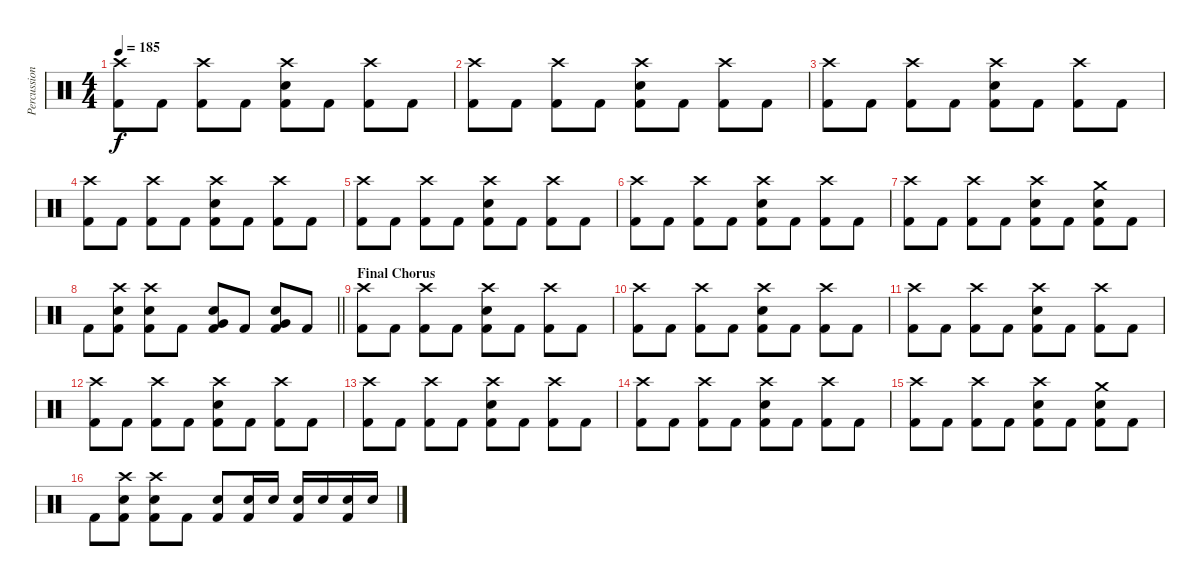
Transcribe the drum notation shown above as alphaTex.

\track ("Percussion" "Percussion") {instrument percussion}
\staff {score}
\articulation defaults
\ts (4 4)
\tempo 185
\clef neutral
\ks c
("Crash high (hit)" "Kick (hit) 2").8{dy f} "Kick (hit) 2".8 ("Crash high (hit)" "Kick (hit) 2").8 "Kick (hit) 2".8 ("Crash high (hit)" "Snare (hit) 2" "Kick (hit) 2").8 "Kick (hit) 2".8 ("Crash high (hit)" "Kick (hit) 2").8 "Kick (hit) 2".8 |
("Crash high (hit)" "Kick (hit) 2").8 "Kick (hit) 2".8 ("Crash high (hit)" "Kick (hit) 2").8 "Kick (hit) 2".8 ("Crash high (hit)" "Snare (hit) 2" "Kick (hit) 2").8 "Kick (hit) 2".8 ("Crash high (hit)" "Kick (hit) 2").8 "Kick (hit) 2".8 |
("Crash high (hit)" "Kick (hit) 2").8 "Kick (hit) 2".8 ("Crash high (hit)" "Kick (hit) 2").8 "Kick (hit) 2".8 ("Crash high (hit)" "Snare (hit) 2" "Kick (hit) 2").8 "Kick (hit) 2".8 ("Crash high (hit)" "Kick (hit) 2").8 "Kick (hit) 2".8 |
("Crash high (hit)" "Kick (hit) 2").8 "Kick (hit) 2".8 ("Crash high (hit)" "Kick (hit) 2").8 "Kick (hit) 2".8 ("Crash high (hit)" "Snare (hit) 2" "Kick (hit) 2").8 "Kick (hit) 2".8 ("Crash high (hit)" "Kick (hit) 2").8 "Kick (hit) 2".8 |
("Crash high (hit)" "Kick (hit) 2").8 "Kick (hit) 2".8 ("Crash high (hit)" "Kick (hit) 2").8 "Kick (hit) 2".8 ("Crash high (hit)" "Snare (hit) 2" "Kick (hit) 2").8 "Kick (hit) 2".8 ("Crash high (hit)" "Kick (hit) 2").8 "Kick (hit) 2".8 |
("Crash high (hit)" "Kick (hit) 2").8 "Kick (hit) 2".8 ("Crash high (hit)" "Kick (hit) 2").8 "Kick (hit) 2".8 ("Crash high (hit)" "Snare (hit) 2" "Kick (hit) 2").8 "Kick (hit) 2".8 ("Crash high (hit)" "Kick (hit) 2").8 "Kick (hit) 2".8 |
("Crash high (hit)" "Kick (hit) 2").8 "Kick (hit) 2".8 ("Crash high (hit)" "Kick (hit) 2").8 "Kick (hit) 2".8 ("Crash high (hit)" "Snare (hit) 2" "Kick (hit) 2").8 "Kick (hit) 2".8 ("Crash medium (hit)" "Snare (hit) 2" "Kick (hit) 2").8 "Kick (hit) 2".8 |
\barLineRight lightlight "Kick (hit) 2".8
("Crash high (hit)" "Snare (hit) 2" "Kick (hit) 2").8 ("Crash high (hit)" "Snare (hit) 2" "Kick (hit) 2").8 "Kick (hit) 2".8 ("Snare (hit) 2" "Very Low Tom (hit)" "Kick (hit) 2").8 "Kick (hit) 2".8 ("Snare (hit) 2" "Very Low Tom (hit)" "Kick (hit) 2").8 "Kick (hit) 2".8 |
\section ("" "Final Chorus")
("Crash high (hit)" "Kick (hit) 2").8 "Kick (hit) 2".8 ("Crash high (hit)" "Kick (hit) 2").8 "Kick (hit) 2".8 ("Crash high (hit)" "Snare (hit) 2" "Kick (hit) 2").8 "Kick (hit) 2".8 ("Crash high (hit)" "Kick (hit) 2").8 "Kick (hit) 2".8 |
("Crash high (hit)" "Kick (hit) 2").8 "Kick (hit) 2".8 ("Crash high (hit)" "Kick (hit) 2").8 "Kick (hit) 2".8 ("Crash high (hit)" "Snare (hit) 2" "Kick (hit) 2").8 "Kick (hit) 2".8 ("Crash high (hit)" "Kick (hit) 2").8 "Kick (hit) 2".8 |
("Crash high (hit)" "Kick (hit) 2").8 "Kick (hit) 2".8 ("Crash high (hit)" "Kick (hit) 2").8 "Kick (hit) 2".8 ("Crash high (hit)" "Snare (hit) 2" "Kick (hit) 2").8 "Kick (hit) 2".8 ("Crash high (hit)" "Kick (hit) 2").8 "Kick (hit) 2".8 |
("Crash high (hit)" "Kick (hit) 2").8 "Kick (hit) 2".8 ("Crash high (hit)" "Kick (hit) 2").8 "Kick (hit) 2".8 ("Crash high (hit)" "Snare (hit) 2" "Kick (hit) 2").8 "Kick (hit) 2".8 ("Crash high (hit)" "Kick (hit) 2").8 "Kick (hit) 2".8 |
("Crash high (hit)" "Kick (hit) 2").8 "Kick (hit) 2".8 ("Crash high (hit)" "Kick (hit) 2").8 "Kick (hit) 2".8 ("Crash high (hit)" "Snare (hit) 2" "Kick (hit) 2").8 "Kick (hit) 2".8 ("Crash high (hit)" "Kick (hit) 2").8 "Kick (hit) 2".8 |
("Crash high (hit)" "Kick (hit) 2").8 "Kick (hit) 2".8 ("Crash high (hit)" "Kick (hit) 2").8 "Kick (hit) 2".8 ("Crash high (hit)" "Snare (hit) 2" "Kick (hit) 2").8 "Kick (hit) 2".8 ("Crash high (hit)" "Kick (hit) 2").8 "Kick (hit) 2".8 |
("Crash high (hit)" "Kick (hit) 2").8 "Kick (hit) 2".8 ("Crash high (hit)" "Kick (hit) 2").8 "Kick (hit) 2".8 ("Crash high (hit)" "Snare (hit) 2" "Kick (hit) 2").8 "Kick (hit) 2".8 ("Crash medium (hit)" "Snare (hit) 2" "Kick (hit) 2").8 "Kick (hit) 2".8 |
"Kick (hit) 2".8 ("Crash high (hit)" "Snare (hit) 2" "Kick (hit) 2").8 ("Crash high (hit)" "Snare (hit) 2" "Kick (hit) 2").8 "Kick (hit) 2".8 ("Snare (hit) 2" "Kick (hit) 2").8 ("Snare (hit) 2" "Kick (hit) 2").16 "Snare (hit) 2".16 ("Snare (hit) 2" "Kick (hit) 2").16 "Snare (hit) 2".16 ("Snare (hit) 2" "Kick (hit) 2").16 "Snare (hit) 2".16
